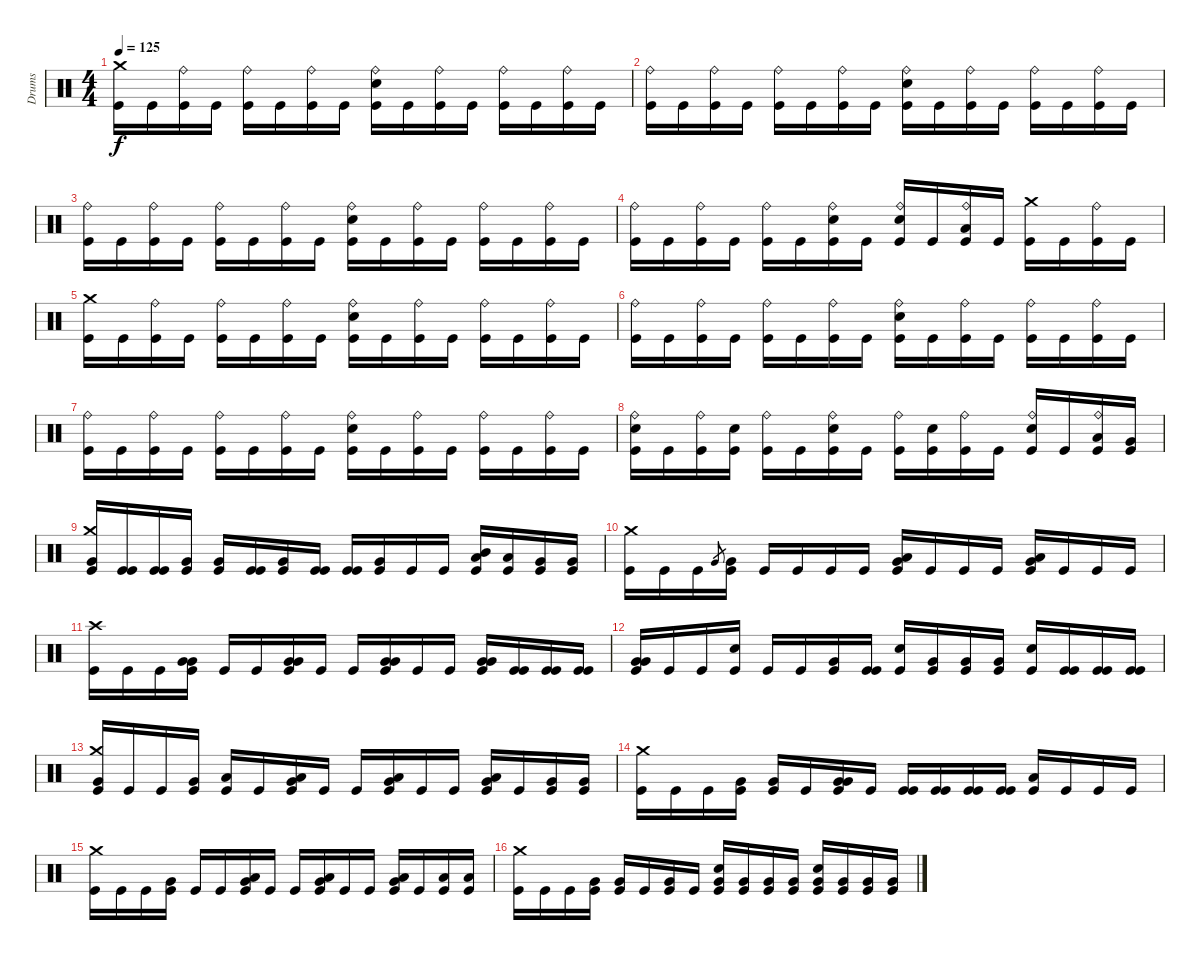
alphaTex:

\track ("Drums" "Drums") {instrument percussion}
\staff {score}
\articulation defaults
\ts (4 4)
\tempo 125
\clef neutral
\ks c
("Kick (hit)" "Crash medium (hit)").16{dy f} "Kick (hit)".16 ("Kick (hit)" "Ride (bell)").16 "Kick (hit)".16 ("Kick (hit)" "Ride (bell)").16 "Kick (hit)".16 ("Kick (hit)" "Ride (bell)").16 "Kick (hit)".16 ("Kick (hit)" "Electric Snare (hit)" "Ride (bell)").16 "Kick (hit)".16 ("Kick (hit)" "Ride (bell)").16 "Kick (hit)".16 ("Kick (hit)" "Ride (bell)").16 "Kick (hit)".16 ("Kick (hit)" "Ride (bell)").16 "Kick (hit)".16 |
("Kick (hit)" "Ride (bell)").16 "Kick (hit)".16 ("Kick (hit)" "Ride (bell)").16 "Kick (hit)".16 ("Kick (hit)" "Ride (bell)").16 "Kick (hit)".16 ("Kick (hit)" "Ride (bell)").16 "Kick (hit)".16 ("Kick (hit)" "Electric Snare (hit)" "Ride (bell)").16 "Kick (hit)".16 ("Kick (hit)" "Ride (bell)").16 "Kick (hit)".16 ("Kick (hit)" "Ride (bell)").16 "Kick (hit)".16 ("Kick (hit)" "Ride (bell)").16 "Kick (hit)".16 |
("Kick (hit)" "Ride (bell)").16 "Kick (hit)".16 ("Kick (hit)" "Ride (bell)").16 "Kick (hit)".16 ("Kick (hit)" "Ride (bell)").16 "Kick (hit)".16 ("Kick (hit)" "Ride (bell)").16 "Kick (hit)".16 ("Kick (hit)" "Electric Snare (hit)" "Ride (bell)").16 "Kick (hit)".16 ("Kick (hit)" "Ride (bell)").16 "Kick (hit)".16 ("Kick (hit)" "Ride (bell)").16 "Kick (hit)".16 ("Kick (hit)" "Ride (bell)").16 "Kick (hit)".16 |
("Kick (hit)" "Ride (bell)").16 "Kick (hit)".16 ("Kick (hit)" "Ride (bell)").16 "Kick (hit)".16 ("Kick (hit)" "Ride (bell)").16 "Kick (hit)".16 ("Kick (hit)" "Electric Snare (hit)" "Ride (bell)").16 "Kick (hit)".16 ("Kick (hit)" "Electric Snare (hit)" "Ride (bell)").16 "Kick (hit)".16 ("Kick (hit)" "Low Tom (hit)" "Ride (bell)").16 "Kick (hit)".16 ("Kick (hit)" "Crash medium (hit)").16 "Kick (hit)".16 ("Kick (hit)" "Ride (bell)").16 "Kick (hit)".16 |
("Kick (hit)" "Crash medium (hit)").16 "Kick (hit)".16 ("Kick (hit)" "Ride (bell)").16 "Kick (hit)".16 ("Kick (hit)" "Ride (bell)").16 "Kick (hit)".16 ("Kick (hit)" "Ride (bell)").16 "Kick (hit)".16 ("Kick (hit)" "Electric Snare (hit)" "Ride (bell)").16 "Kick (hit)".16 ("Kick (hit)" "Ride (bell)").16 "Kick (hit)".16 ("Kick (hit)" "Ride (bell)").16 "Kick (hit)".16 ("Kick (hit)" "Ride (bell)").16 "Kick (hit)".16 |
("Kick (hit)" "Ride (bell)").16 "Kick (hit)".16 ("Kick (hit)" "Ride (bell)").16 "Kick (hit)".16 ("Kick (hit)" "Ride (bell)").16 "Kick (hit)".16 ("Kick (hit)" "Ride (bell)").16 "Kick (hit)".16 ("Kick (hit)" "Electric Snare (hit)" "Ride (bell)").16 "Kick (hit)".16 ("Kick (hit)" "Ride (bell)").16 "Kick (hit)".16 ("Kick (hit)" "Ride (bell)").16 "Kick (hit)".16 ("Kick (hit)" "Ride (bell)").16 "Kick (hit)".16 |
("Kick (hit)" "Ride (bell)").16 "Kick (hit)".16 ("Kick (hit)" "Ride (bell)").16 "Kick (hit)".16 ("Kick (hit)" "Ride (bell)").16 "Kick (hit)".16 ("Kick (hit)" "Ride (bell)").16 "Kick (hit)".16 ("Kick (hit)" "Electric Snare (hit)" "Ride (bell)").16 "Kick (hit)".16 ("Kick (hit)" "Ride (bell)").16 "Kick (hit)".16 ("Kick (hit)" "Ride (bell)").16 "Kick (hit)".16 ("Kick (hit)" "Ride (bell)").16 "Kick (hit)".16 |
("Kick (hit)" "Electric Snare (hit)" "Ride (bell)").16 "Kick (hit)".16 ("Kick (hit)" "Ride (bell)").16 ("Kick (hit)" "Electric Snare (hit)").16 ("Kick (hit)" "Ride (bell)").16 "Kick (hit)".16 ("Kick (hit)" "Electric Snare (hit)" "Ride (bell)").16 "Kick (hit)".16 ("Kick (hit)" "Ride (bell)").16 ("Kick (hit)" "Electric Snare (hit)").16 ("Kick (hit)" "Ride (bell)").16 "Kick (hit)".16 ("Kick (hit)" "Electric Snare (hit)" "Ride (bell)").16 "Kick (hit)".16 ("Kick (hit)" "Low Tom (hit)" "Ride (bell)").16 ("Kick (hit)" "Very Low Tom (hit)").16 |
("Kick (hit)" "Very Low Tom (hit)" "Crash medium (hit)").16 ("Kick (hit)" "Kick (hit)").16 ("Kick (hit)" "Kick (hit)").16 ("Kick (hit)" "Very Low Tom (hit)").16 ("Kick (hit)" "Very Low Tom (hit)").16 ("Kick (hit)" "Kick (hit)").16 ("Kick (hit)" "Very Low Tom (hit)").16 ("Kick (hit)" "Kick (hit)").16 ("Kick (hit)" "Kick (hit)").16 ("Kick (hit)" "Very Low Tom (hit)").16 "Kick (hit)".16 "Kick (hit)".16 ("Kick (hit)" "Mid Tom (hit)" "Low Tom (hit)").16 ("Kick (hit)" "Low Tom (hit)").16 ("Kick (hit)" "Very Low Tom (hit)").16 ("Kick (hit)" "Very Low Tom (hit)").16 |
("Kick (hit)" "Crash medium (hit)").16 "Kick (hit)".16 "Kick (hit)".16 "Very Low Tom (hit)".8{gr} ("Kick (hit)" "Very Low Tom (hit)").16 "Kick (hit)".16 "Kick (hit)".16 "Kick (hit)".16 "Kick (hit)".16 ("Kick (hit)" "Very Low Tom (hit)" "Low Floor Tom (hit)").16 "Kick (hit)".16 "Kick (hit)".16 "Kick (hit)".16 ("Kick (hit)" "Very Low Tom (hit)" "Low Floor Tom (hit)").16 "Kick (hit)".16 "Kick (hit)".16 "Kick (hit)".16 |
("Kick (hit)" "Crash high (hit)").16 "Kick (hit)".16 "Kick (hit)".16 ("Kick (hit)" "Very Low Tom (hit)" "Very Low Tom (hit)").16 "Kick (hit)".16 "Kick (hit)".16 ("Kick (hit)" "Very Low Tom (hit)" "Very Low Tom (hit)").16 "Kick (hit)".16 "Kick (hit)".16 ("Kick (hit)" "Very Low Tom (hit)" "Very Low Tom (hit)").16 "Kick (hit)".16 "Kick (hit)".16 ("Kick (hit)" "Very Low Tom (hit)" "Very Low Tom (hit)").16 ("Kick (hit)" "Kick (hit)").16 ("Kick (hit)" "Kick (hit)").16 ("Kick (hit)" "Kick (hit)").16 |
("Kick (hit)" "Very Low Tom (hit)" "Very Low Tom (hit)").16 "Kick (hit)".16 "Kick (hit)".16 ("Kick (hit)" "Electric Snare (hit)").16 "Kick (hit)".16 "Kick (hit)".16 ("Kick (hit)" "Very Low Tom (hit)").16 ("Kick (hit)" "Kick (hit)").16 ("Kick (hit)" "Electric Snare (hit)").16 ("Kick (hit)" "Very Low Tom (hit)").16 ("Kick (hit)" "Very Low Tom (hit)").16 ("Kick (hit)" "Very Low Tom (hit)").16 ("Kick (hit)" "Electric Snare (hit)").16 ("Kick (hit)" "Kick (hit)").16 ("Kick (hit)" "Kick (hit)").16 ("Kick (hit)" "Kick (hit)").16 |
("Kick (hit)" "Very Low Tom (hit)" "Crash medium (hit)").16 "Kick (hit)".16 "Kick (hit)".16 ("Kick (hit)" "Very Low Tom (hit)").16 ("Kick (hit)" "Low Floor Tom (hit)").16 "Kick (hit)".16 ("Kick (hit)" "Low Floor Tom (hit)" "Very Low Tom (hit)").16 "Kick (hit)".16 "Kick (hit)".16 ("Kick (hit)" "Low Floor Tom (hit)" "Very Low Tom (hit)").16 "Kick (hit)".16 "Kick (hit)".16 ("Kick (hit)" "Low Tom (hit)" "Very Low Tom (hit)").16 "Kick (hit)".16 ("Kick (hit)" "Very Low Tom (hit)").16 ("Kick (hit)" "Very Low Tom (hit)").16 |
("Kick (hit)" "Crash medium (hit)").16 "Kick (hit)".16 "Kick (hit)".16 ("Kick (hit)" "Very Low Tom (hit)").16 ("Kick (hit)" "Very Low Tom (hit)").16 "Kick (hit)".16 ("Kick (hit)" "Very Low Tom (hit)" "Very Low Tom (hit)").16 "Kick (hit)".16 ("Kick (hit)" "Kick (hit)").16 ("Kick (hit)" "Kick (hit)").16 ("Kick (hit)" "Kick (hit)").16 ("Kick (hit)" "Kick (hit)").16 ("Kick (hit)" "Low Tom (hit)").16 "Kick (hit)".16 "Kick (hit)".16 "Kick (hit)".16 |
("Kick (hit)" "Crash medium (hit)").16 "Kick (hit)".16 "Kick (hit)".16 ("Kick (hit)" "Very Low Tom (hit)").16 "Kick (hit)".16 "Kick (hit)".16 ("Kick (hit)" "Low Floor Tom (hit)" "Very Low Tom (hit)").16 "Kick (hit)".16 "Kick (hit)".16 ("Kick (hit)" "Low Floor Tom (hit)" "Very Low Tom (hit)").16 "Kick (hit)".16 "Kick (hit)".16 ("Kick (hit)" "Low Floor Tom (hit)" "Very Low Tom (hit)").16 "Kick (hit)".16 ("Kick (hit)" "Low Tom (hit)").16 ("Kick (hit)" "Low Tom (hit)").16 |
("Kick (hit)" "Crash medium (hit)").16 "Kick (hit)".16 "Kick (hit)".16 ("Kick (hit)" "Very Low Tom (hit)").16 ("Kick (hit)" "Very Low Tom (hit)").16 "Kick (hit)".16 ("Kick (hit)" "Very Low Tom (hit)").16 "Kick (hit)".16 ("Kick (hit)" "Electric Snare (hit)" "Very Low Tom (hit)").16 ("Kick (hit)" "Very Low Tom (hit)").16 ("Kick (hit)" "Very Low Tom (hit)").16 ("Kick (hit)" "Very Low Tom (hit)").16 ("Kick (hit)" "Electric Snare (hit)" "Very Low Tom (hit)").16 ("Kick (hit)" "Very Low Tom (hit)").16 ("Kick (hit)" "Very Low Tom (hit)").16 ("Kick (hit)" "Very Low Tom (hit)").16
